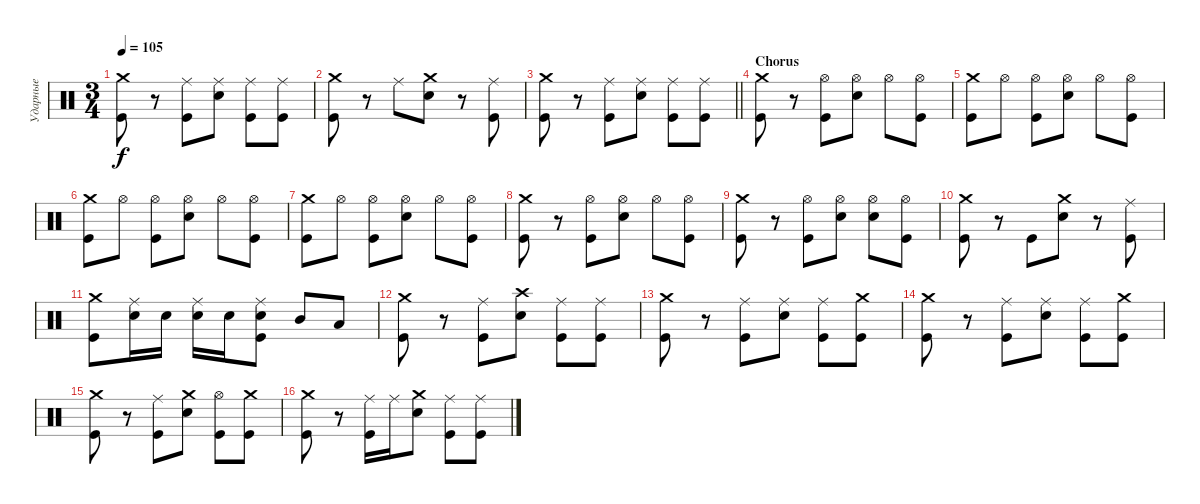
\track ("Ударные" "Ударные") {instrument percussion}
\staff {score}
\articulation defaults
\ts (3 4)
\tempo 105
\clef neutral
\ks c
("Crash medium (hit)" "Kick (hit)").8{dy f} r.8 ("Ride (middle)" "Kick (hit)").8 ("Ride (middle)" "Electric Snare (hit)").8 ("Ride (middle)" "Kick (hit)").8 ("Ride (middle)" "Kick (hit)").8 |
("Crash medium (hit)" "Kick (hit)").8 r.8 "Ride (middle)".8 ("Crash medium (hit)" "Electric Snare (hit)").8 r.8 ("Ride (middle)" "Kick (hit)").8 |
\barLineRight lightlight
("Crash medium (hit)" "Kick (hit)").8 r.8 ("Ride (middle)" "Kick (hit)").8 ("Ride (middle)" "Electric Snare (hit)").8 ("Ride (middle)" "Kick (hit)").8 ("Ride (middle)" "Kick (hit)").8 |
\section ("" "Chorus")
("Crash medium (hit)" "Kick (hit)").8 r.8 ("Hi-Hat (open)" "Kick (hit)").8 ("Hi-Hat (open)" "Electric Snare (hit)").8 "Hi-Hat (open)".8 ("Hi-Hat (open)" "Kick (hit)").8 |
("Crash medium (hit)" "Kick (hit)").8 "Hi-Hat (open)".8 ("Hi-Hat (open)" "Kick (hit)").8 ("Hi-Hat (open)" "Electric Snare (hit)").8 "Hi-Hat (open)".8 ("Hi-Hat (open)" "Kick (hit)").8 |
("Crash medium (hit)" "Kick (hit)").8 "Hi-Hat (open)".8 ("Hi-Hat (open)" "Kick (hit)").8 ("Hi-Hat (open)" "Electric Snare (hit)").8 "Hi-Hat (open)".8 ("Hi-Hat (open)" "Kick (hit)").8 |
("Crash medium (hit)" "Kick (hit)").8 "Hi-Hat (open)".8 ("Hi-Hat (open)" "Kick (hit)").8 ("Hi-Hat (open)" "Electric Snare (hit)").8 "Hi-Hat (open)".8 ("Hi-Hat (open)" "Kick (hit)").8 |
("Crash medium (hit)" "Kick (hit)").8 r.8 ("Hi-Hat (open)" "Kick (hit)").8 ("Hi-Hat (open)" "Electric Snare (hit)").8 "Hi-Hat (open)".8 ("Hi-Hat (open)" "Kick (hit)").8 |
("Crash medium (hit)" "Kick (hit)").8 r.8 ("Hi-Hat (open)" "Kick (hit)").8 ("Hi-Hat (open)" "Electric Snare (hit)").8 ("Hi-Hat (open)" "Electric Snare (hit)").8 ("Hi-Hat (open)" "Kick (hit)").8 |
("Crash medium (hit)" "Kick (hit)").8 r.8 "Kick (hit)".8 ("Crash medium (hit)" "Electric Snare (hit)").8 r.8 ("Ride (middle)" "Kick (hit)").8 |
("Crash medium (hit)" "Kick (hit)").8 ("Ride (middle)" "Electric Snare (hit)").16 "Electric Snare (hit)".16 ("Ride (middle)" "Electric Snare (hit)").16 "Electric Snare (hit)".16 ("Ride (middle)" "Electric Snare (hit)" "Kick (hit)").8 "Mid Tom (hit)".8 "Low Tom (hit)".8 |
("Crash medium (hit)" "Kick (hit)").8 r.8 ("Ride (middle)" "Kick (hit)").8 ("Crash high (hit)" "Electric Snare (hit)").8 ("Ride (middle)" "Kick (hit)").8 ("Ride (middle)" "Kick (hit)").8 |
("Crash medium (hit)" "Kick (hit)").8 r.8 ("Ride (middle)" "Kick (hit)").8 ("Ride (middle)" "Electric Snare (hit)").8 ("Ride (middle)" "Kick (hit)").8 ("Crash medium (hit)" "Kick (hit)").8 |
("Crash medium (hit)" "Kick (hit)").8 r.8 ("Ride (middle)" "Kick (hit)").8 ("Ride (middle)" "Electric Snare (hit)").8 ("Ride (middle)" "Kick (hit)").8 ("Crash medium (hit)" "Kick (hit)").8 |
("Crash medium (hit)" "Kick (hit)").8 r.8 ("Ride (middle)" "Kick (hit)").8 ("Crash medium (hit)" "Electric Snare (hit)").8 ("Hi-Hat (open)" "Kick (hit)").8 ("Crash medium (hit)" "Kick (hit)").8 |
("Crash medium (hit)" "Kick (hit)").8 r.8 ("Ride (middle)" "Kick (hit)").16 "Ride (middle)".16 ("Crash medium (hit)" "Electric Snare (hit)").8 ("Ride (middle)" "Kick (hit)").8 ("Ride (middle)" "Kick (hit)").8
